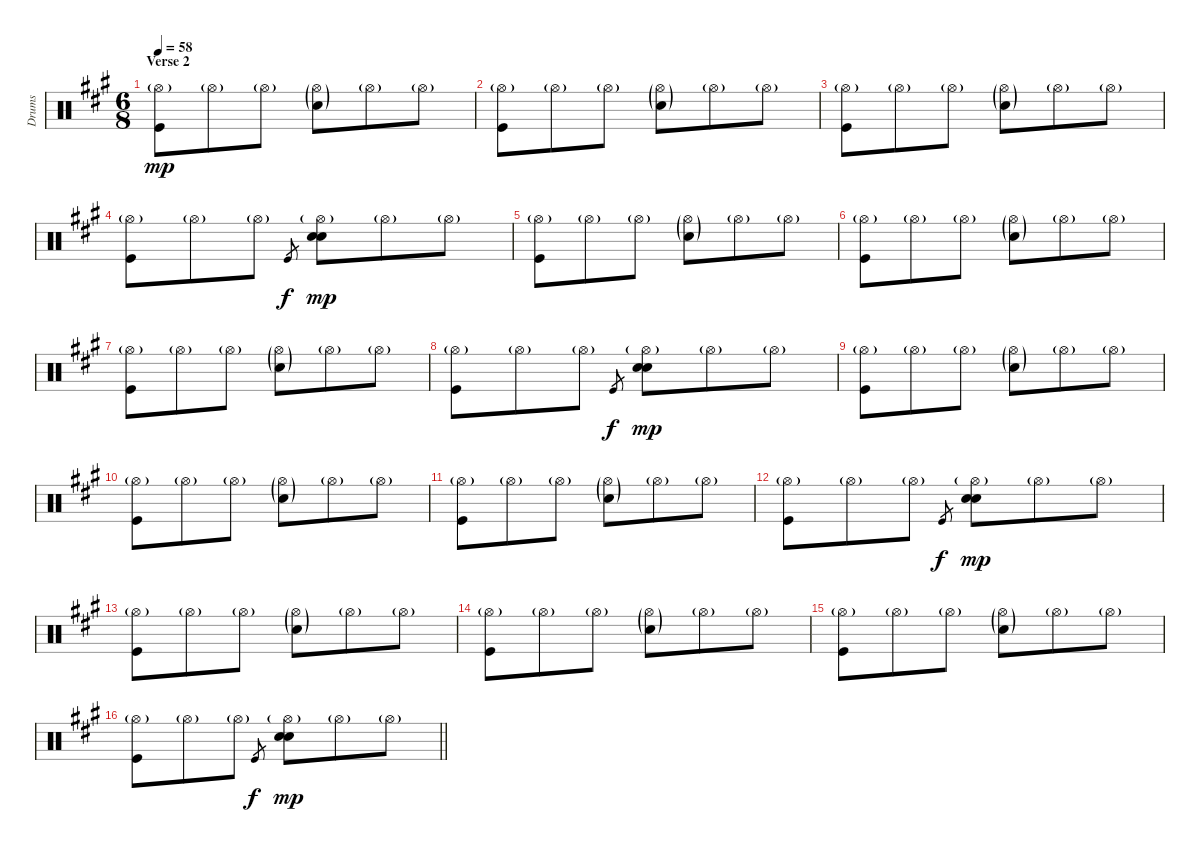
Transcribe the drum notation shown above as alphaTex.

\track ("Drums" "Drums") {instrument percussion}
\staff {score}
\articulation defaults
\ts (6 8)
\section ("" "Verse 2")
\tempo 58
\clef neutral
\ks a
("Hi-Hat (open)"{g} "Kick (hit)").8{dy mp} "Hi-Hat (open)"{g}.8 "Hi-Hat (open)"{g}.8 ("Hi-Hat (open)"{g} "Snare (hit) 2"{g}).8 "Hi-Hat (open)"{g}.8 "Hi-Hat (open)"{g}.8 |
("Hi-Hat (open)"{g} "Kick (hit)").8 "Hi-Hat (open)"{g}.8 "Hi-Hat (open)"{g}.8 ("Hi-Hat (open)"{g} "Snare (hit) 2"{g}).8 "Hi-Hat (open)"{g}.8 "Hi-Hat (open)"{g}.8 |
("Hi-Hat (open)"{g} "Kick (hit)").8 "Hi-Hat (open)"{g}.8 "Hi-Hat (open)"{g}.8 ("Hi-Hat (open)"{g} "Snare (hit) 2"{g}).8 "Hi-Hat (open)"{g}.8 "Hi-Hat (open)"{g}.8 |
("Hi-Hat (open)"{g} "Kick (hit)").8 "Hi-Hat (open)"{g}.8 "Hi-Hat (open)"{g}.8 "Kick (hit)".8{gr dy f} ("Hi-Hat (open)"{g} "Electric Snare (hit)" "Snare (hit) 2").8{dy mp} "Hi-Hat (open)"{g}.8 "Hi-Hat (open)"{g}.8 |
("Hi-Hat (open)"{g} "Kick (hit)").8 "Hi-Hat (open)"{g}.8 "Hi-Hat (open)"{g}.8 ("Hi-Hat (open)"{g} "Snare (hit) 2"{g}).8 "Hi-Hat (open)"{g}.8 "Hi-Hat (open)"{g}.8 |
("Hi-Hat (open)"{g} "Kick (hit)").8 "Hi-Hat (open)"{g}.8 "Hi-Hat (open)"{g}.8 ("Hi-Hat (open)"{g} "Snare (hit) 2"{g}).8 "Hi-Hat (open)"{g}.8 "Hi-Hat (open)"{g}.8 |
("Hi-Hat (open)"{g} "Kick (hit)").8 "Hi-Hat (open)"{g}.8 "Hi-Hat (open)"{g}.8 ("Hi-Hat (open)"{g} "Snare (hit) 2"{g}).8 "Hi-Hat (open)"{g}.8 "Hi-Hat (open)"{g}.8 |
("Hi-Hat (open)"{g} "Kick (hit)").8 "Hi-Hat (open)"{g}.8 "Hi-Hat (open)"{g}.8 "Kick (hit)".8{gr dy f} ("Hi-Hat (open)"{g} "Electric Snare (hit)" "Snare (hit) 2").8{dy mp} "Hi-Hat (open)"{g}.8 "Hi-Hat (open)"{g}.8 |
("Hi-Hat (open)"{g} "Kick (hit)").8 "Hi-Hat (open)"{g}.8 "Hi-Hat (open)"{g}.8 ("Hi-Hat (open)"{g} "Snare (hit) 2"{g}).8 "Hi-Hat (open)"{g}.8 "Hi-Hat (open)"{g}.8 |
("Hi-Hat (open)"{g} "Kick (hit)").8 "Hi-Hat (open)"{g}.8 "Hi-Hat (open)"{g}.8 ("Hi-Hat (open)"{g} "Snare (hit) 2"{g}).8 "Hi-Hat (open)"{g}.8 "Hi-Hat (open)"{g}.8 |
("Hi-Hat (open)"{g} "Kick (hit)").8 "Hi-Hat (open)"{g}.8 "Hi-Hat (open)"{g}.8 ("Hi-Hat (open)"{g} "Snare (hit) 2"{g}).8 "Hi-Hat (open)"{g}.8 "Hi-Hat (open)"{g}.8 |
("Hi-Hat (open)"{g} "Kick (hit)").8 "Hi-Hat (open)"{g}.8 "Hi-Hat (open)"{g}.8 "Kick (hit)".8{gr dy f} ("Hi-Hat (open)"{g} "Electric Snare (hit)" "Snare (hit) 2").8{dy mp} "Hi-Hat (open)"{g}.8 "Hi-Hat (open)"{g}.8 |
("Hi-Hat (open)"{g} "Kick (hit)").8 "Hi-Hat (open)"{g}.8 "Hi-Hat (open)"{g}.8 ("Hi-Hat (open)"{g} "Snare (hit) 2"{g}).8 "Hi-Hat (open)"{g}.8 "Hi-Hat (open)"{g}.8 |
("Hi-Hat (open)"{g} "Kick (hit)").8 "Hi-Hat (open)"{g}.8 "Hi-Hat (open)"{g}.8 ("Hi-Hat (open)"{g} "Snare (hit) 2"{g}).8 "Hi-Hat (open)"{g}.8 "Hi-Hat (open)"{g}.8 |
("Hi-Hat (open)"{g} "Kick (hit)").8 "Hi-Hat (open)"{g}.8 "Hi-Hat (open)"{g}.8 ("Hi-Hat (open)"{g} "Snare (hit) 2"{g}).8 "Hi-Hat (open)"{g}.8 "Hi-Hat (open)"{g}.8 |
\barLineRight lightlight
("Hi-Hat (open)"{g} "Kick (hit)").8 "Hi-Hat (open)"{g}.8 "Hi-Hat (open)"{g}.8 "Kick (hit)".8{gr dy f} ("Hi-Hat (open)"{g} "Electric Snare (hit)" "Snare (hit) 2").8{dy mp} "Hi-Hat (open)"{g}.8 "Hi-Hat (open)"{g}.8
